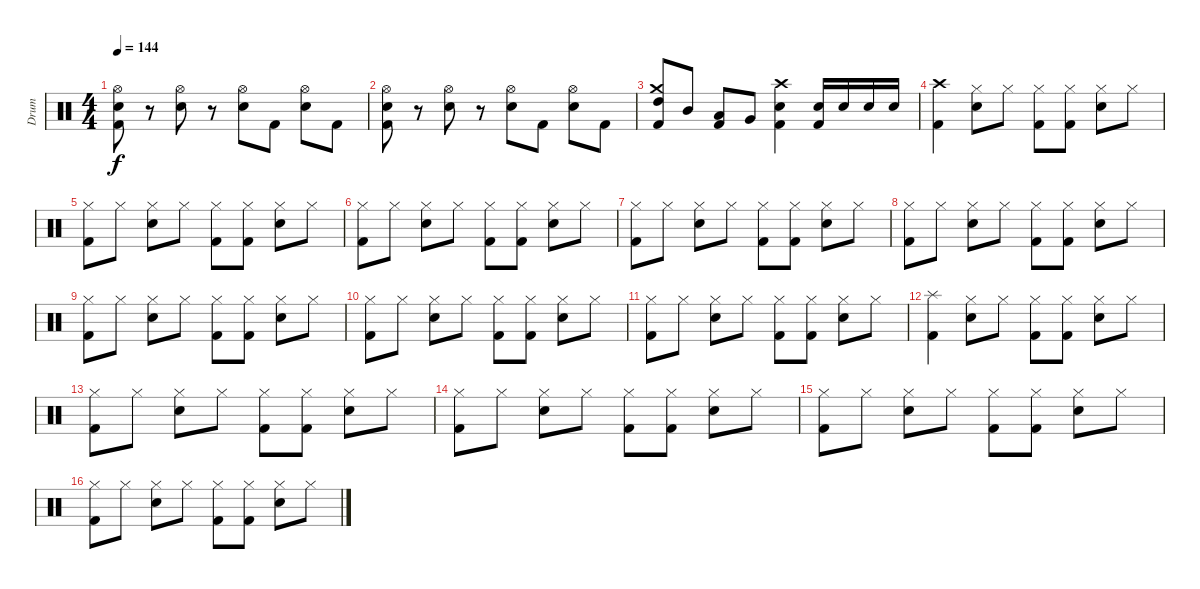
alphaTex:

\track ("Drum" "Drum") {instrument percussion}
\staff {score}
\articulation defaults
\ts (4 4)
\tempo 144
\clef neutral
\ks c
("Hi-Hat (open)" "Electric Snare (hit)" "Kick (hit) 2").8{dy f} r.8 ("Hi-Hat (open)" "Electric Snare (hit)").8 r.8 ("Hi-Hat (open)" "Electric Snare (hit)").8 "Kick (hit) 2".8 ("Hi-Hat (open)" "Electric Snare (hit)").8 "Kick (hit) 2".8 |
("Hi-Hat (open)" "Electric Snare (hit)" "Kick (hit) 2").8 r.8 ("Hi-Hat (open)" "Electric Snare (hit)").8 r.8 ("Hi-Hat (open)" "Electric Snare (hit)").8 "Kick (hit) 2".8 ("Hi-Hat (open)" "Electric Snare (hit)").8 "Kick (hit) 2".8 |
("Crash medium (hit)" "High Tom (hit)" "Kick (hit) 2").8 "Mid Tom (hit)".8 ("Low Tom (hit)" "Kick (hit) 2").8 "Very Low Tom (hit)".8 ("Crash high (hit)" "Electric Snare (hit)" "Kick (hit) 2").4 ("Electric Snare (hit)" "Kick (hit) 2").16 "Electric Snare (hit)".16 "Electric Snare (hit)".16 "Electric Snare (hit)".16 |
("Crash high (hit)" "Kick (hit) 2").4 ("Hi-Hat (closed)" "Electric Snare (hit)").8 "Hi-Hat (closed)".8 ("Hi-Hat (closed)" "Kick (hit) 2").8 ("Hi-Hat (closed)" "Kick (hit) 2").8 ("Hi-Hat (closed)" "Electric Snare (hit)").8 "Hi-Hat (closed)".8 |
("Hi-Hat (closed)" "Kick (hit) 2").8 "Hi-Hat (closed)".8 ("Hi-Hat (closed)" "Electric Snare (hit)").8 "Hi-Hat (closed)".8 ("Hi-Hat (closed)" "Kick (hit) 2").8 ("Hi-Hat (closed)" "Kick (hit) 2").8 ("Hi-Hat (closed)" "Electric Snare (hit)").8 "Hi-Hat (closed)".8 |
("Hi-Hat (closed)" "Kick (hit) 2").8 "Hi-Hat (closed)".8 ("Hi-Hat (closed)" "Electric Snare (hit)").8 "Hi-Hat (closed)".8 ("Hi-Hat (closed)" "Kick (hit) 2").8 ("Hi-Hat (closed)" "Kick (hit) 2").8 ("Hi-Hat (closed)" "Electric Snare (hit)").8 "Hi-Hat (closed)".8 |
("Hi-Hat (closed)" "Kick (hit) 2").8 "Hi-Hat (closed)".8 ("Hi-Hat (closed)" "Electric Snare (hit)").8 "Hi-Hat (closed)".8 ("Hi-Hat (closed)" "Kick (hit) 2").8 ("Hi-Hat (closed)" "Kick (hit) 2").8 ("Hi-Hat (closed)" "Electric Snare (hit)").8 "Hi-Hat (closed)".8 |
("Hi-Hat (closed)" "Kick (hit) 2").8 "Hi-Hat (closed)".8 ("Hi-Hat (closed)" "Electric Snare (hit)").8 "Hi-Hat (closed)".8 ("Hi-Hat (closed)" "Kick (hit) 2").8 ("Hi-Hat (closed)" "Kick (hit) 2").8 ("Hi-Hat (closed)" "Electric Snare (hit)").8 "Hi-Hat (closed)".8 |
("Hi-Hat (closed)" "Kick (hit) 2").8 "Hi-Hat (closed)".8 ("Hi-Hat (closed)" "Electric Snare (hit)").8 "Hi-Hat (closed)".8 ("Hi-Hat (closed)" "Kick (hit) 2").8 ("Hi-Hat (closed)" "Kick (hit) 2").8 ("Hi-Hat (closed)" "Electric Snare (hit)").8 "Hi-Hat (closed)".8 |
("Hi-Hat (closed)" "Kick (hit) 2").8 "Hi-Hat (closed)".8 ("Hi-Hat (closed)" "Electric Snare (hit)").8 "Hi-Hat (closed)".8 ("Hi-Hat (closed)" "Kick (hit) 2").8 ("Hi-Hat (closed)" "Kick (hit) 2").8 ("Hi-Hat (closed)" "Electric Snare (hit)").8 "Hi-Hat (closed)".8 |
("Hi-Hat (closed)" "Kick (hit) 2").8 "Hi-Hat (closed)".8 ("Hi-Hat (closed)" "Electric Snare (hit)").8 "Hi-Hat (closed)".8 ("Hi-Hat (closed)" "Kick (hit) 2").8 ("Hi-Hat (closed)" "Kick (hit) 2").8 ("Hi-Hat (closed)" "Electric Snare (hit)").8 "Hi-Hat (closed)".8 |
("Splash (hit)" "Kick (hit) 2").4 ("Hi-Hat (closed)" "Electric Snare (hit)").8 "Hi-Hat (closed)".8 ("Hi-Hat (closed)" "Kick (hit) 2").8 ("Hi-Hat (closed)" "Kick (hit) 2").8 ("Hi-Hat (closed)" "Electric Snare (hit)").8 "Hi-Hat (closed)".8 |
("Hi-Hat (closed)" "Kick (hit) 2").8 "Hi-Hat (closed)".8 ("Hi-Hat (closed)" "Electric Snare (hit)").8 "Hi-Hat (closed)".8 ("Hi-Hat (closed)" "Kick (hit) 2").8 ("Hi-Hat (closed)" "Kick (hit) 2").8 ("Hi-Hat (closed)" "Electric Snare (hit)").8 "Hi-Hat (closed)".8 |
("Hi-Hat (closed)" "Kick (hit) 2").8 "Hi-Hat (closed)".8 ("Hi-Hat (closed)" "Electric Snare (hit)").8 "Hi-Hat (closed)".8 ("Hi-Hat (closed)" "Kick (hit) 2").8 ("Hi-Hat (closed)" "Kick (hit) 2").8 ("Hi-Hat (closed)" "Electric Snare (hit)").8 "Hi-Hat (closed)".8 |
("Hi-Hat (closed)" "Kick (hit) 2").8 "Hi-Hat (closed)".8 ("Hi-Hat (closed)" "Electric Snare (hit)").8 "Hi-Hat (closed)".8 ("Hi-Hat (closed)" "Kick (hit) 2").8 ("Hi-Hat (closed)" "Kick (hit) 2").8 ("Hi-Hat (closed)" "Electric Snare (hit)").8 "Hi-Hat (closed)".8 |
("Hi-Hat (closed)" "Kick (hit) 2").8 "Hi-Hat (closed)".8 ("Hi-Hat (closed)" "Electric Snare (hit)").8 "Hi-Hat (closed)".8 ("Hi-Hat (closed)" "Kick (hit) 2").8 ("Hi-Hat (closed)" "Kick (hit) 2").8 ("Hi-Hat (closed)" "Electric Snare (hit)").8 "Hi-Hat (closed)".8
